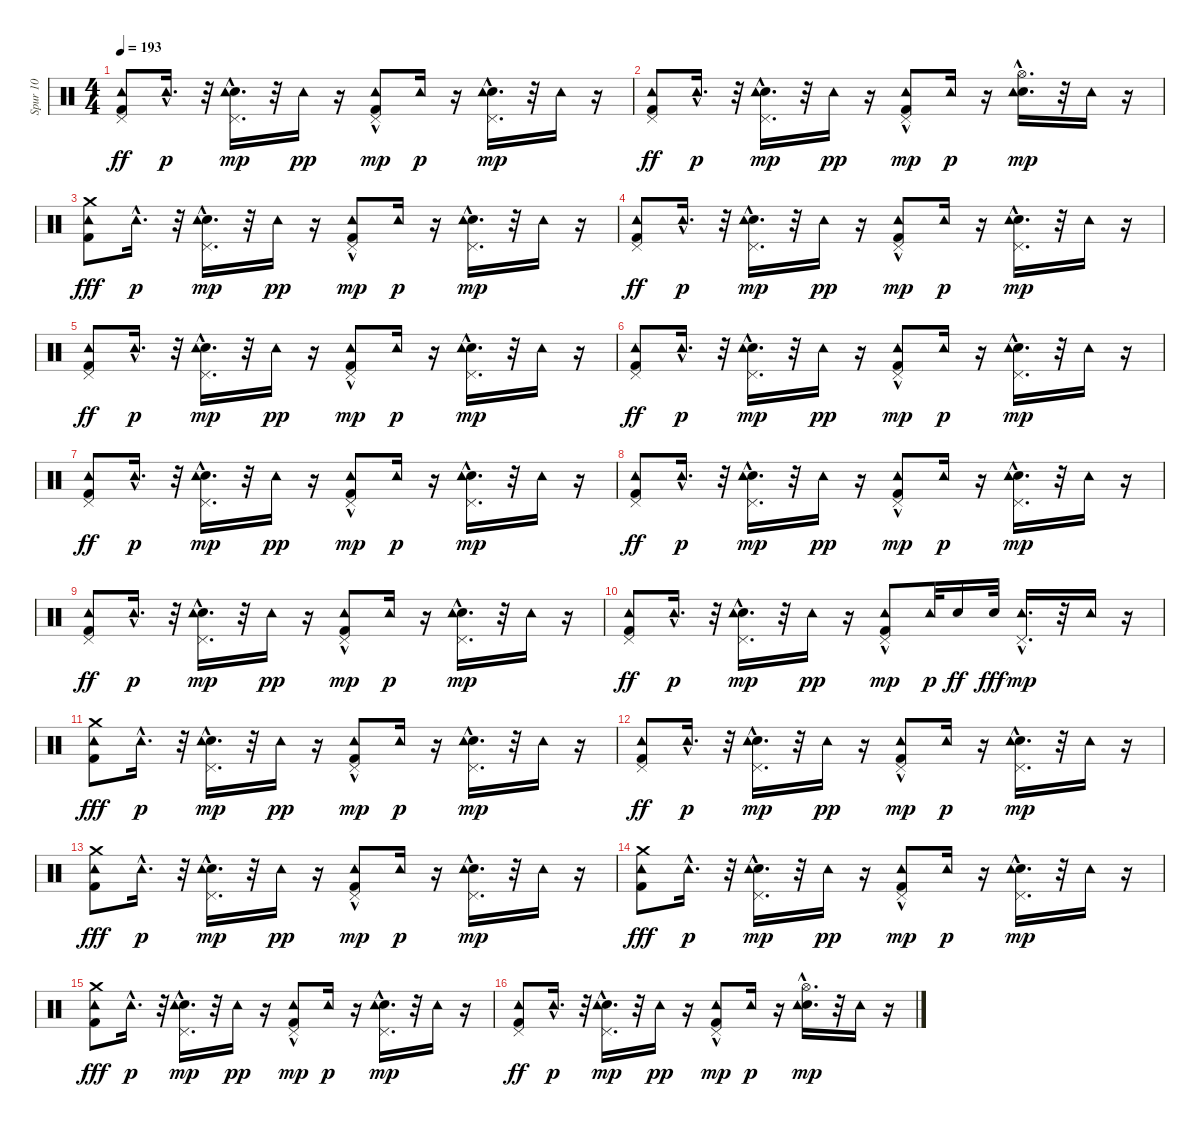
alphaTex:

\track ("Spur 10" "Spur 10") {instrument percussion}
\staff {score}
\articulation defaults
\ts (4 4)
\tempo 193
\clef neutral
\ks c
("Tambourine (hit)" "Kick (hit) 2" "Pedal Hi-Hat (hit)").8{dy ff} "Tambourine (hit)"{hac}.16{d dy p} r.32 ("Pedal Hi-Hat (hit)" "Snare (hit) 2"{hac} "Tambourine (hit)").16{d dy mp} r.32 "Tambourine (hit)".16{dy pp} r.16 ("Kick (hit) 2" "Pedal Hi-Hat (hit)" "Tambourine (hit)"{hac}).8{dy mp} "Tambourine (hit)".16{dy p} r.16 ("Snare (hit) 2"{hac} "Pedal Hi-Hat (hit)"{hac} "Tambourine (hit)").16{d dy mp} r.32 "Tambourine (hit)".16 r.16 |
("Tambourine (hit)" "Kick (hit) 2" "Pedal Hi-Hat (hit)").8{dy ff} "Tambourine (hit)"{hac}.16{d dy p} r.32 ("Pedal Hi-Hat (hit)" "Snare (hit) 2"{hac} "Tambourine (hit)").16{d dy mp} r.32 "Tambourine (hit)".16{dy pp} r.16 ("Kick (hit) 2" "Pedal Hi-Hat (hit)" "Tambourine (hit)"{hac}).8{dy mp} "Tambourine (hit)".16{dy p} r.16 ("Snare (hit) 2"{hac} "Hi-Hat (open)"{hac} "Tambourine (hit)").16{d dy mp} r.32 "Tambourine (hit)".16 r.16 |
("Tambourine (hit)" "Kick (hit) 2" "Crash medium (hit)").8{dy fff} "Tambourine (hit)"{hac}.16{d dy p} r.32 ("Pedal Hi-Hat (hit)" "Snare (hit) 2"{hac} "Tambourine (hit)").16{d dy mp} r.32 "Tambourine (hit)".16{dy pp} r.16 ("Kick (hit) 2" "Pedal Hi-Hat (hit)" "Tambourine (hit)"{hac}).8{dy mp} "Tambourine (hit)".16{dy p} r.16 ("Snare (hit) 2"{hac} "Pedal Hi-Hat (hit)"{hac} "Tambourine (hit)").16{d dy mp} r.32 "Tambourine (hit)".16 r.16 |
("Tambourine (hit)" "Kick (hit) 2" "Pedal Hi-Hat (hit)").8{dy ff} "Tambourine (hit)"{hac}.16{d dy p} r.32 ("Pedal Hi-Hat (hit)" "Snare (hit) 2"{hac} "Tambourine (hit)").16{d dy mp} r.32 "Tambourine (hit)".16{dy pp} r.16 ("Kick (hit) 2" "Pedal Hi-Hat (hit)" "Tambourine (hit)"{hac}).8{dy mp} "Tambourine (hit)".16{dy p} r.16 ("Snare (hit) 2"{hac} "Pedal Hi-Hat (hit)"{hac} "Tambourine (hit)").16{d dy mp} r.32 "Tambourine (hit)".16 r.16 |
("Tambourine (hit)" "Kick (hit) 2" "Pedal Hi-Hat (hit)").8{dy ff} "Tambourine (hit)"{hac}.16{d dy p} r.32 ("Pedal Hi-Hat (hit)" "Snare (hit) 2"{hac} "Tambourine (hit)").16{d dy mp} r.32 "Tambourine (hit)".16{dy pp} r.16 ("Kick (hit) 2" "Pedal Hi-Hat (hit)" "Tambourine (hit)"{hac}).8{dy mp} "Tambourine (hit)".16{dy p} r.16 ("Snare (hit) 2"{hac} "Pedal Hi-Hat (hit)"{hac} "Tambourine (hit)").16{d dy mp} r.32 "Tambourine (hit)".16 r.16 |
("Tambourine (hit)" "Kick (hit) 2" "Pedal Hi-Hat (hit)").8{dy ff} "Tambourine (hit)"{hac}.16{d dy p} r.32 ("Pedal Hi-Hat (hit)" "Snare (hit) 2"{hac} "Tambourine (hit)").16{d dy mp} r.32 "Tambourine (hit)".16{dy pp} r.16 ("Kick (hit) 2" "Pedal Hi-Hat (hit)" "Tambourine (hit)"{hac}).8{dy mp} "Tambourine (hit)".16{dy p} r.16 ("Snare (hit) 2"{hac} "Pedal Hi-Hat (hit)"{hac} "Tambourine (hit)").16{d dy mp} r.32 "Tambourine (hit)".16 r.16 |
("Tambourine (hit)" "Kick (hit) 2" "Pedal Hi-Hat (hit)").8{dy ff} "Tambourine (hit)"{hac}.16{d dy p} r.32 ("Pedal Hi-Hat (hit)" "Snare (hit) 2"{hac} "Tambourine (hit)").16{d dy mp} r.32 "Tambourine (hit)".16{dy pp} r.16 ("Kick (hit) 2" "Pedal Hi-Hat (hit)" "Tambourine (hit)"{hac}).8{dy mp} "Tambourine (hit)".16{dy p} r.16 ("Snare (hit) 2"{hac} "Pedal Hi-Hat (hit)"{hac} "Tambourine (hit)").16{d dy mp} r.32 "Tambourine (hit)".16 r.16 |
("Tambourine (hit)" "Kick (hit) 2" "Pedal Hi-Hat (hit)").8{dy ff} "Tambourine (hit)"{hac}.16{d dy p} r.32 ("Pedal Hi-Hat (hit)" "Snare (hit) 2"{hac} "Tambourine (hit)").16{d dy mp} r.32 "Tambourine (hit)".16{dy pp} r.16 ("Kick (hit) 2" "Pedal Hi-Hat (hit)" "Tambourine (hit)"{hac}).8{dy mp} "Tambourine (hit)".16{dy p} r.16 ("Snare (hit) 2"{hac} "Pedal Hi-Hat (hit)"{hac} "Tambourine (hit)").16{d dy mp} r.32 "Tambourine (hit)".16 r.16 |
("Tambourine (hit)" "Kick (hit) 2" "Pedal Hi-Hat (hit)").8{dy ff} "Tambourine (hit)"{hac}.16{d dy p} r.32 ("Pedal Hi-Hat (hit)" "Snare (hit) 2"{hac} "Tambourine (hit)").16{d dy mp} r.32 "Tambourine (hit)".16{dy pp} r.16 ("Kick (hit) 2" "Pedal Hi-Hat (hit)" "Tambourine (hit)"{hac}).8{dy mp} "Tambourine (hit)".16{dy p} r.16 ("Snare (hit) 2"{hac} "Pedal Hi-Hat (hit)"{hac} "Tambourine (hit)").16{d dy mp} r.32 "Tambourine (hit)".16 r.16 |
("Tambourine (hit)" "Kick (hit) 2" "Pedal Hi-Hat (hit)").8{dy ff} "Tambourine (hit)"{hac}.16{d dy p} r.32 ("Pedal Hi-Hat (hit)" "Snare (hit) 2"{hac} "Tambourine (hit)").16{d dy mp} r.32 "Tambourine (hit)".16{dy pp} r.16 ("Kick (hit) 2" "Pedal Hi-Hat (hit)" "Tambourine (hit)"{hac}).8{dy mp} "Tambourine (hit)".32{dy p} "Snare (hit) 2".16{dy ff} "Snare (hit) 2".32{dy fff} ("Pedal Hi-Hat (hit)"{hac} "Tambourine (hit)").16{d dy mp} r.32 "Tambourine (hit)".16 r.16 |
("Tambourine (hit)" "Kick (hit) 2" "Crash medium (hit)").8{dy fff} "Tambourine (hit)"{hac}.16{d dy p} r.32 ("Pedal Hi-Hat (hit)" "Snare (hit) 2"{hac} "Tambourine (hit)").16{d dy mp} r.32 "Tambourine (hit)".16{dy pp} r.16 ("Kick (hit) 2" "Pedal Hi-Hat (hit)" "Tambourine (hit)"{hac}).8{dy mp} "Tambourine (hit)".16{dy p} r.16 ("Snare (hit) 2"{hac} "Pedal Hi-Hat (hit)"{hac} "Tambourine (hit)").16{d dy mp} r.32 "Tambourine (hit)".16 r.16 |
("Tambourine (hit)" "Kick (hit) 2" "Pedal Hi-Hat (hit)").8{dy ff} "Tambourine (hit)"{hac}.16{d dy p} r.32 ("Pedal Hi-Hat (hit)" "Snare (hit) 2"{hac} "Tambourine (hit)").16{d dy mp} r.32 "Tambourine (hit)".16{dy pp} r.16 ("Kick (hit) 2" "Pedal Hi-Hat (hit)" "Tambourine (hit)"{hac}).8{dy mp} "Tambourine (hit)".16{dy p} r.16 ("Snare (hit) 2"{hac} "Pedal Hi-Hat (hit)"{hac} "Tambourine (hit)").16{d dy mp} r.32 "Tambourine (hit)".16 r.16 |
("Tambourine (hit)" "Kick (hit) 2" "Crash medium (hit)").8{dy fff} "Tambourine (hit)"{hac}.16{d dy p} r.32 ("Pedal Hi-Hat (hit)" "Snare (hit) 2"{hac} "Tambourine (hit)").16{d dy mp} r.32 "Tambourine (hit)".16{dy pp} r.16 ("Kick (hit) 2" "Pedal Hi-Hat (hit)" "Tambourine (hit)"{hac}).8{dy mp} "Tambourine (hit)".16{dy p} r.16 ("Snare (hit) 2"{hac} "Pedal Hi-Hat (hit)"{hac} "Tambourine (hit)").16{d dy mp} r.32 "Tambourine (hit)".16 r.16 |
("Tambourine (hit)" "Kick (hit) 2" "Crash medium (hit)").8{dy fff} "Tambourine (hit)"{hac}.16{d dy p} r.32 ("Pedal Hi-Hat (hit)" "Snare (hit) 2"{hac} "Tambourine (hit)").16{d dy mp} r.32 "Tambourine (hit)".16{dy pp} r.16 ("Kick (hit) 2" "Pedal Hi-Hat (hit)" "Tambourine (hit)"{hac}).8{dy mp} "Tambourine (hit)".16{dy p} r.16 ("Snare (hit) 2"{hac} "Pedal Hi-Hat (hit)"{hac} "Tambourine (hit)").16{d dy mp} r.32 "Tambourine (hit)".16 r.16 |
("Tambourine (hit)" "Kick (hit) 2" "Crash medium (hit)").8{dy fff} "Tambourine (hit)"{hac}.16{d dy p} r.32 ("Pedal Hi-Hat (hit)" "Snare (hit) 2"{hac} "Tambourine (hit)").16{d dy mp} r.32 "Tambourine (hit)".16{dy pp} r.16 ("Kick (hit) 2" "Pedal Hi-Hat (hit)" "Tambourine (hit)"{hac}).8{dy mp} "Tambourine (hit)".16{dy p} r.16 ("Snare (hit) 2"{hac} "Pedal Hi-Hat (hit)"{hac} "Tambourine (hit)").16{d dy mp} r.32 "Tambourine (hit)".16 r.16 |
("Tambourine (hit)" "Kick (hit) 2" "Pedal Hi-Hat (hit)").8{dy ff} "Tambourine (hit)"{hac}.16{d dy p} r.32 ("Pedal Hi-Hat (hit)" "Snare (hit) 2"{hac} "Tambourine (hit)").16{d dy mp} r.32 "Tambourine (hit)".16{dy pp} r.16 ("Kick (hit) 2" "Pedal Hi-Hat (hit)" "Tambourine (hit)"{hac}).8{dy mp} "Tambourine (hit)".16{dy p} r.16 ("Snare (hit) 2"{hac} "Hi-Hat (open)"{hac} "Tambourine (hit)").16{d dy mp} r.32 "Tambourine (hit)".16 r.16
